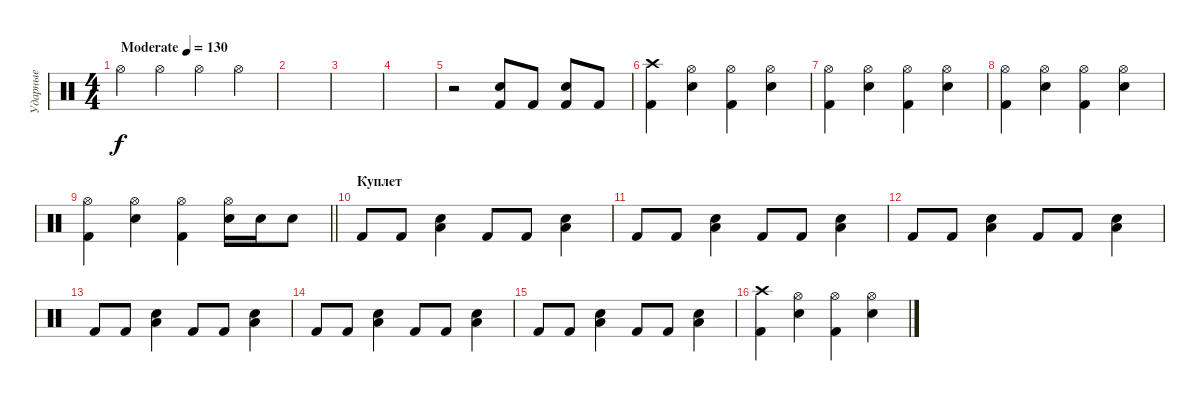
\track ("Ударные" "Ударные") {instrument percussion}
\staff {score}
\articulation defaults
\ts (4 4)
\tempo (130 "Moderate")
\clef neutral
\ks c "Hi-Hat (open)".4{dy f} "Hi-Hat (open)".4 "Hi-Hat (open)".4 "Hi-Hat (open)".4
|
|
|
|
r.2 ("Snare (hit) 2" "Kick (hit) 2").8 "Kick (hit) 2".8 ("Snare (hit) 2" "Kick (hit) 2").8 "Kick (hit) 2".8 |
("Crash high (hit)" "Kick (hit) 2").4 ("Hi-Hat (open)" "Snare (hit) 2").4 ("Hi-Hat (open)" "Kick (hit) 2").4 ("Hi-Hat (open)" "Snare (hit) 2").4 |
("Hi-Hat (open)" "Kick (hit) 2").4 ("Hi-Hat (open)" "Snare (hit) 2").4 ("Hi-Hat (open)" "Kick (hit) 2").4 ("Hi-Hat (open)" "Snare (hit) 2").4 |
("Hi-Hat (open)" "Kick (hit) 2").4 ("Hi-Hat (open)" "Snare (hit) 2").4 ("Hi-Hat (open)" "Kick (hit) 2").4 ("Hi-Hat (open)" "Snare (hit) 2").4 |
\barLineRight lightlight
("Hi-Hat (open)" "Kick (hit) 2").4 ("Hi-Hat (open)" "Snare (hit) 2").4 ("Hi-Hat (open)" "Kick (hit) 2").4 ("Hi-Hat (open)" "Snare (hit) 2").16 "Snare (hit) 2".16 "Snare (hit) 2".8 |
\section ("" "Куплет")
"Kick (hit) 2".8 "Kick (hit) 2".8 ("Low Tom (hit)" "Snare (hit) 2").4 "Kick (hit) 2".8 "Kick (hit) 2".8 ("Low Tom (hit)" "Snare (hit) 2").4 |
"Kick (hit) 2".8 "Kick (hit) 2".8 ("Low Tom (hit)" "Snare (hit) 2").4 "Kick (hit) 2".8 "Kick (hit) 2".8 ("Low Tom (hit)" "Snare (hit) 2").4 |
"Kick (hit) 2".8 "Kick (hit) 2".8 ("Low Tom (hit)" "Snare (hit) 2").4 "Kick (hit) 2".8 "Kick (hit) 2".8 ("Low Tom (hit)" "Snare (hit) 2").4 |
"Kick (hit) 2".8 "Kick (hit) 2".8 ("Low Tom (hit)" "Snare (hit) 2").4 "Kick (hit) 2".8 "Kick (hit) 2".8 ("Low Tom (hit)" "Snare (hit) 2").4 |
"Kick (hit) 2".8 "Kick (hit) 2".8 ("Low Tom (hit)" "Snare (hit) 2").4 "Kick (hit) 2".8 "Kick (hit) 2".8 ("Low Tom (hit)" "Snare (hit) 2").4 |
"Kick (hit) 2".8 "Kick (hit) 2".8 ("Low Tom (hit)" "Snare (hit) 2").4 "Kick (hit) 2".8 "Kick (hit) 2".8 ("Low Tom (hit)" "Snare (hit) 2").4 |
("Crash high (hit)" "Kick (hit) 2").4 ("Hi-Hat (open)" "Snare (hit) 2").4 ("Hi-Hat (open)" "Kick (hit) 2").4 ("Hi-Hat (open)" "Snare (hit) 2").4
